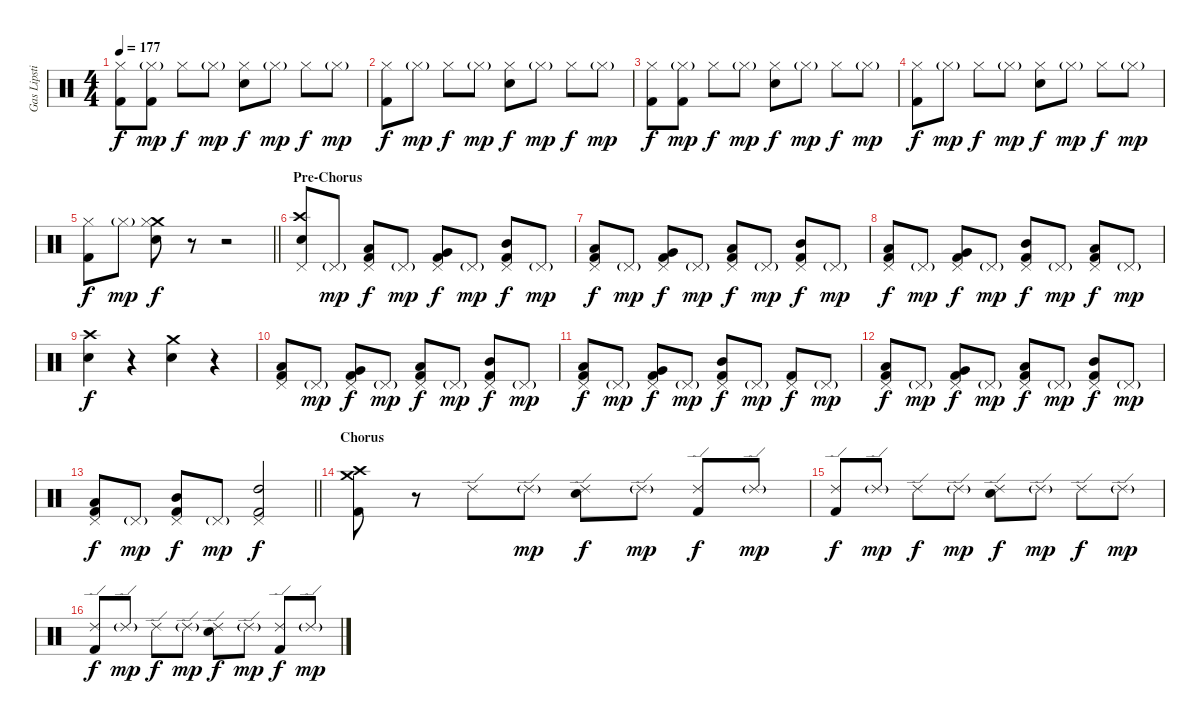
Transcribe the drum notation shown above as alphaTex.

\track ("Gas Lipstick (Drums)" "Gas Lipsti") {instrument percussion}
\staff {score}
\articulation defaults
\ts (4 4)
\tempo 177
\clef neutral
\ks c
("Hi-Hat (closed)" "Kick (hit) 2").8{dy f} ("Hi-Hat (closed)"{g} "Kick (hit) 2").8{dy mp} "Hi-Hat (closed)".8{dy f} "Hi-Hat (closed)"{g}.8{dy mp} ("Hi-Hat (closed)" "Snare (hit) 2").8{dy f} "Hi-Hat (closed)"{g}.8{dy mp} "Hi-Hat (closed)".8{dy f} "Hi-Hat (closed)"{g}.8{dy mp} |
("Hi-Hat (closed)" "Kick (hit) 2").8{dy f} "Hi-Hat (closed)"{g}.8{dy mp} "Hi-Hat (closed)".8{dy f} "Hi-Hat (closed)"{g}.8{dy mp} ("Hi-Hat (closed)" "Snare (hit) 2").8{dy f} "Hi-Hat (closed)"{g}.8{dy mp} "Hi-Hat (closed)".8{dy f} "Hi-Hat (closed)"{g}.8{dy mp} |
("Hi-Hat (closed)" "Kick (hit) 2").8{dy f} ("Hi-Hat (closed)"{g} "Kick (hit) 2").8{dy mp} "Hi-Hat (closed)".8{dy f} "Hi-Hat (closed)"{g}.8{dy mp} ("Hi-Hat (closed)" "Snare (hit) 2").8{dy f} "Hi-Hat (closed)"{g}.8{dy mp} "Hi-Hat (closed)".8{dy f} "Hi-Hat (closed)"{g}.8{dy mp} |
("Hi-Hat (closed)" "Kick (hit) 2").8{dy f} "Hi-Hat (closed)"{g}.8{dy mp} "Hi-Hat (closed)".8{dy f} "Hi-Hat (closed)"{g}.8{dy mp} ("Hi-Hat (closed)" "Snare (hit) 2").8{dy f} "Hi-Hat (closed)"{g}.8{dy mp} "Hi-Hat (closed)".8{dy f} "Hi-Hat (closed)"{g}.8{dy mp} |
\barLineRight lightlight
("Hi-Hat (closed)" "Kick (hit) 2").8{dy f} "Hi-Hat (closed)"{g}.8{dy mp} ("Crash medium (hit)" "Hi-Hat (closed)" "Snare (hit) 2").8{dy f} r.8 r.2 |
\section ("" "Pre-Chorus")
("Crash high (hit)" "Pedal Hi-Hat (hit)" "Snare (hit) 2").8 "Pedal Hi-Hat (hit)"{g}.8{dy mp} ("Pedal Hi-Hat (hit)" "Low Tom (hit)" "Kick (hit) 2").8{dy f} "Pedal Hi-Hat (hit)"{g}.8{dy mp} ("Pedal Hi-Hat (hit)" "Very Low Tom (hit)" "Kick (hit) 2").8{dy f} "Pedal Hi-Hat (hit)"{g}.8{dy mp} ("Pedal Hi-Hat (hit)" "Mid Tom (hit)" "Kick (hit) 2").8{dy f} "Pedal Hi-Hat (hit)"{g}.8{dy mp} |
("Pedal Hi-Hat (hit)" "Low Tom (hit)" "Kick (hit) 2").8{dy f} "Pedal Hi-Hat (hit)"{g}.8{dy mp} ("Pedal Hi-Hat (hit)" "Very Low Tom (hit)" "Kick (hit) 2").8{dy f} "Pedal Hi-Hat (hit)"{g}.8{dy mp} ("Pedal Hi-Hat (hit)" "Low Tom (hit)" "Kick (hit) 2").8{dy f} "Pedal Hi-Hat (hit)"{g}.8{dy mp} ("Pedal Hi-Hat (hit)" "Mid Tom (hit)" "Kick (hit) 2").8{dy f} "Pedal Hi-Hat (hit)"{g}.8{dy mp} |
("Pedal Hi-Hat (hit)" "Low Tom (hit)" "Kick (hit) 2").8{dy f} "Pedal Hi-Hat (hit)"{g}.8{dy mp} ("Pedal Hi-Hat (hit)" "Very Low Tom (hit)" "Kick (hit) 2").8{dy f} "Pedal Hi-Hat (hit)"{g}.8{dy mp} ("Pedal Hi-Hat (hit)" "Mid Tom (hit)" "Kick (hit) 2").8{dy f} "Pedal Hi-Hat (hit)"{g}.8{dy mp} ("Pedal Hi-Hat (hit)" "Low Tom (hit)" "Kick (hit) 2").8{dy f} "Pedal Hi-Hat (hit)"{g}.8{dy mp} |
("Crash high (hit)" "Snare (hit) 2").4{dy f} r.4 ("Crash medium (hit)" "Snare (hit) 2").4 r.4 |
("Pedal Hi-Hat (hit)" "Low Tom (hit)" "Kick (hit) 2").8 "Pedal Hi-Hat (hit)"{g}.8{dy mp} ("Pedal Hi-Hat (hit)" "Very Low Tom (hit)" "Kick (hit) 2").8{dy f} "Pedal Hi-Hat (hit)"{g}.8{dy mp} ("Pedal Hi-Hat (hit)" "Low Tom (hit)" "Kick (hit) 2").8{dy f} "Pedal Hi-Hat (hit)"{g}.8{dy mp} ("Pedal Hi-Hat (hit)" "Mid Tom (hit)" "Kick (hit) 2").8{dy f} "Pedal Hi-Hat (hit)"{g}.8{dy mp} |
("Pedal Hi-Hat (hit)" "Low Tom (hit)" "Kick (hit) 2").8{dy f} "Pedal Hi-Hat (hit)"{g}.8{dy mp} ("Pedal Hi-Hat (hit)" "Very Low Tom (hit)" "Kick (hit) 2").8{dy f} "Pedal Hi-Hat (hit)"{g}.8{dy mp} ("Pedal Hi-Hat (hit)" "Mid Tom (hit)" "Kick (hit) 2").8{dy f} "Pedal Hi-Hat (hit)"{g}.8{dy mp} ("Pedal Hi-Hat (hit)" "Kick (hit) 2").8{dy f} "Pedal Hi-Hat (hit)"{g}.8{dy mp} |
("Pedal Hi-Hat (hit)" "Low Tom (hit)" "Kick (hit) 2").8{dy f} "Pedal Hi-Hat (hit)"{g}.8{dy mp} ("Pedal Hi-Hat (hit)" "Very Low Tom (hit)" "Kick (hit) 2").8{dy f} "Pedal Hi-Hat (hit)"{g}.8{dy mp} ("Pedal Hi-Hat (hit)" "Low Tom (hit)" "Kick (hit) 2").8{dy f} "Pedal Hi-Hat (hit)"{g}.8{dy mp} ("Pedal Hi-Hat (hit)" "Mid Tom (hit)" "Kick (hit) 2").8{dy f} "Pedal Hi-Hat (hit)"{g}.8{dy mp} |
\barLineRight lightlight
("Pedal Hi-Hat (hit)" "Low Tom (hit)" "Kick (hit) 2").8{dy f} "Pedal Hi-Hat (hit)"{g}.8{dy mp} ("Pedal Hi-Hat (hit)" "Mid Tom (hit)" "Kick (hit) 2").8{dy f} "Pedal Hi-Hat (hit)"{g}.8{dy mp} ("Pedal Hi-Hat (hit)" "High Tom (hit)" "Kick (hit) 2").2{dy f} |
\section ("" "Chorus")
("Crash medium (hit)" "Crash high (hit)" "Kick (hit) 2").8 r.8 "Ride (edge) 2".8 "Ride (edge) 2"{g}.8{dy mp} ("Ride (edge) 2" "Snare (hit) 2").8{dy f} "Ride (edge) 2"{g}.8{dy mp} ("Ride (edge) 2" "Kick (hit) 2").8{dy f} "Ride (edge) 2"{g}.8{dy mp} |
("Ride (edge) 2" "Kick (hit) 2").8{dy f} "Ride (edge) 2"{g}.8{dy mp} "Ride (edge) 2".8{dy f} "Ride (edge) 2"{g}.8{dy mp} ("Ride (edge) 2" "Snare (hit) 2").8{dy f} "Ride (edge) 2"{g}.8{dy mp} "Ride (edge) 2".8{dy f} "Ride (edge) 2"{g}.8{dy mp} |
("Ride (edge) 2" "Kick (hit) 2").8{dy f} "Ride (edge) 2"{g}.8{dy mp} "Ride (edge) 2".8{dy f} "Ride (edge) 2"{g}.8{dy mp} ("Ride (edge) 2" "Snare (hit) 2").8{dy f} "Ride (edge) 2"{g}.8{dy mp} ("Ride (edge) 2" "Kick (hit) 2").8{dy f} "Ride (edge) 2"{g}.8{dy mp}
